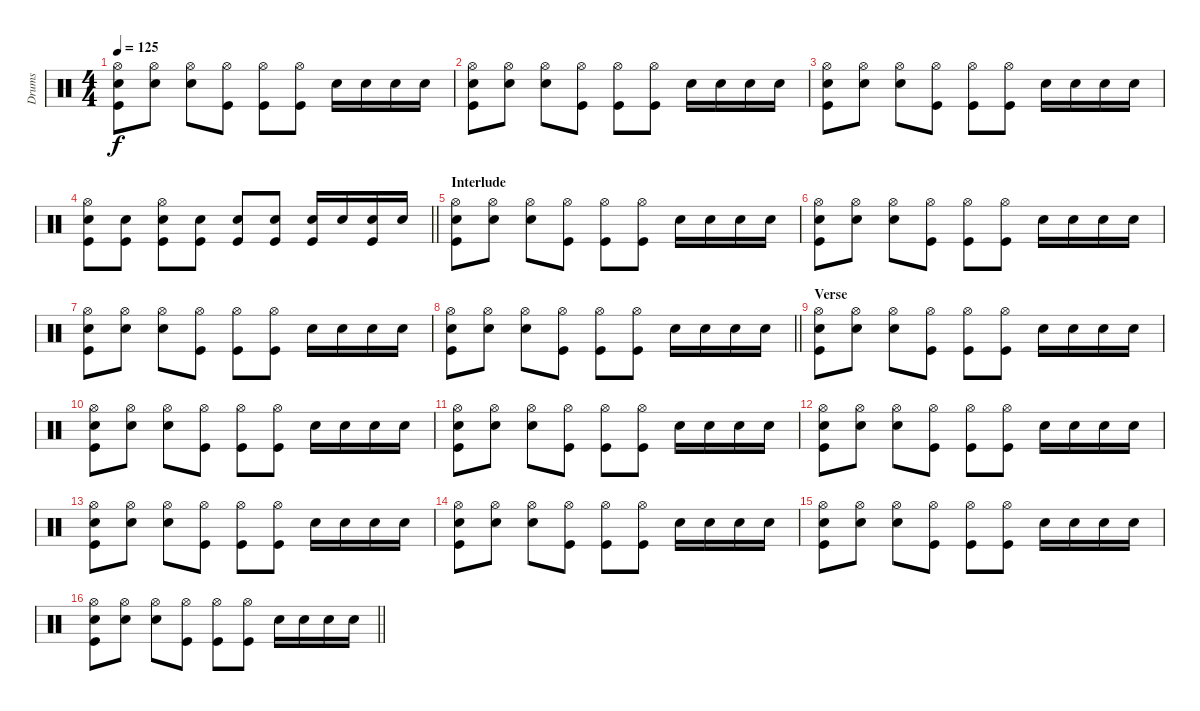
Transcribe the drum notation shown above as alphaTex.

\track ("Drums" "Drums") {instrument percussion}
\staff {score}
\articulation defaults
\ts (4 4)
\tempo 125
\clef neutral
\ks c
("Hi-Hat (open)" "Electric Snare (hit)" "Kick (hit)").8{dy f} ("Hi-Hat (open)" "Electric Snare (hit)").8 ("Hi-Hat (open)" "Electric Snare (hit)").8 ("Hi-Hat (open)" "Kick (hit)").8 ("Hi-Hat (open)" "Kick (hit)").8 ("Hi-Hat (open)" "Kick (hit)").8 "Electric Snare (hit)".16 "Electric Snare (hit)".16 "Electric Snare (hit)".16 "Electric Snare (hit)".16 |
("Hi-Hat (open)" "Electric Snare (hit)" "Kick (hit)").8 ("Hi-Hat (open)" "Electric Snare (hit)").8 ("Hi-Hat (open)" "Electric Snare (hit)").8 ("Hi-Hat (open)" "Kick (hit)").8 ("Hi-Hat (open)" "Kick (hit)").8 ("Hi-Hat (open)" "Kick (hit)").8 "Electric Snare (hit)".16 "Electric Snare (hit)".16 "Electric Snare (hit)".16 "Electric Snare (hit)".16 |
("Hi-Hat (open)" "Electric Snare (hit)" "Kick (hit)").8 ("Hi-Hat (open)" "Electric Snare (hit)").8 ("Hi-Hat (open)" "Electric Snare (hit)").8 ("Hi-Hat (open)" "Kick (hit)").8 ("Hi-Hat (open)" "Kick (hit)").8 ("Hi-Hat (open)" "Kick (hit)").8 "Electric Snare (hit)".16 "Electric Snare (hit)".16 "Electric Snare (hit)".16 "Electric Snare (hit)".16 |
\barLineRight lightlight
("Hi-Hat (open)" "Electric Snare (hit)" "Kick (hit)").8 ("Electric Snare (hit)" "Kick (hit)").8 ("Hi-Hat (open)" "Electric Snare (hit)" "Kick (hit)").8 ("Electric Snare (hit)" "Kick (hit)").8 ("Electric Snare (hit)" "Kick (hit)").8 ("Electric Snare (hit)" "Kick (hit)").8 ("Electric Snare (hit)" "Kick (hit)").16 "Electric Snare (hit)".16 ("Electric Snare (hit)" "Kick (hit)").16 "Electric Snare (hit)".16 |
\section ("" "Interlude")
("Hi-Hat (open)" "Electric Snare (hit)" "Kick (hit)").8 ("Hi-Hat (open)" "Electric Snare (hit)").8 ("Hi-Hat (open)" "Electric Snare (hit)").8 ("Hi-Hat (open)" "Kick (hit)").8 ("Hi-Hat (open)" "Kick (hit)").8 ("Hi-Hat (open)" "Kick (hit)").8 "Electric Snare (hit)".16 "Electric Snare (hit)".16 "Electric Snare (hit)".16 "Electric Snare (hit)".16 |
("Hi-Hat (open)" "Electric Snare (hit)" "Kick (hit)").8 ("Hi-Hat (open)" "Electric Snare (hit)").8 ("Hi-Hat (open)" "Electric Snare (hit)").8 ("Hi-Hat (open)" "Kick (hit)").8 ("Hi-Hat (open)" "Kick (hit)").8 ("Hi-Hat (open)" "Kick (hit)").8 "Electric Snare (hit)".16 "Electric Snare (hit)".16 "Electric Snare (hit)".16 "Electric Snare (hit)".16 |
("Hi-Hat (open)" "Electric Snare (hit)" "Kick (hit)").8 ("Hi-Hat (open)" "Electric Snare (hit)").8 ("Hi-Hat (open)" "Electric Snare (hit)").8 ("Hi-Hat (open)" "Kick (hit)").8 ("Hi-Hat (open)" "Kick (hit)").8 ("Hi-Hat (open)" "Kick (hit)").8 "Electric Snare (hit)".16 "Electric Snare (hit)".16 "Electric Snare (hit)".16 "Electric Snare (hit)".16 |
\barLineRight lightlight
("Hi-Hat (open)" "Electric Snare (hit)" "Kick (hit)").8 ("Hi-Hat (open)" "Electric Snare (hit)").8 ("Hi-Hat (open)" "Electric Snare (hit)").8 ("Hi-Hat (open)" "Kick (hit)").8 ("Hi-Hat (open)" "Kick (hit)").8 ("Hi-Hat (open)" "Kick (hit)").8 "Electric Snare (hit)".16 "Electric Snare (hit)".16 "Electric Snare (hit)".16 "Electric Snare (hit)".16 |
\section ("" "Verse")
("Hi-Hat (open)" "Electric Snare (hit)" "Kick (hit)").8 ("Hi-Hat (open)" "Electric Snare (hit)").8 ("Hi-Hat (open)" "Electric Snare (hit)").8 ("Hi-Hat (open)" "Kick (hit)").8 ("Hi-Hat (open)" "Kick (hit)").8 ("Hi-Hat (open)" "Kick (hit)").8 "Electric Snare (hit)".16 "Electric Snare (hit)".16 "Electric Snare (hit)".16 "Electric Snare (hit)".16 |
("Hi-Hat (open)" "Electric Snare (hit)" "Kick (hit)").8 ("Hi-Hat (open)" "Electric Snare (hit)").8 ("Hi-Hat (open)" "Electric Snare (hit)").8 ("Hi-Hat (open)" "Kick (hit)").8 ("Hi-Hat (open)" "Kick (hit)").8 ("Hi-Hat (open)" "Kick (hit)").8 "Electric Snare (hit)".16 "Electric Snare (hit)".16 "Electric Snare (hit)".16 "Electric Snare (hit)".16 |
("Hi-Hat (open)" "Electric Snare (hit)" "Kick (hit)").8 ("Hi-Hat (open)" "Electric Snare (hit)").8 ("Hi-Hat (open)" "Electric Snare (hit)").8 ("Hi-Hat (open)" "Kick (hit)").8 ("Hi-Hat (open)" "Kick (hit)").8 ("Hi-Hat (open)" "Kick (hit)").8 "Electric Snare (hit)".16 "Electric Snare (hit)".16 "Electric Snare (hit)".16 "Electric Snare (hit)".16 |
("Hi-Hat (open)" "Electric Snare (hit)" "Kick (hit)").8 ("Hi-Hat (open)" "Electric Snare (hit)").8 ("Hi-Hat (open)" "Electric Snare (hit)").8 ("Hi-Hat (open)" "Kick (hit)").8 ("Hi-Hat (open)" "Kick (hit)").8 ("Hi-Hat (open)" "Kick (hit)").8 "Electric Snare (hit)".16 "Electric Snare (hit)".16 "Electric Snare (hit)".16 "Electric Snare (hit)".16 |
("Hi-Hat (open)" "Electric Snare (hit)" "Kick (hit)").8 ("Hi-Hat (open)" "Electric Snare (hit)").8 ("Hi-Hat (open)" "Electric Snare (hit)").8 ("Hi-Hat (open)" "Kick (hit)").8 ("Hi-Hat (open)" "Kick (hit)").8 ("Hi-Hat (open)" "Kick (hit)").8 "Electric Snare (hit)".16 "Electric Snare (hit)".16 "Electric Snare (hit)".16 "Electric Snare (hit)".16 |
("Hi-Hat (open)" "Electric Snare (hit)" "Kick (hit)").8 ("Hi-Hat (open)" "Electric Snare (hit)").8 ("Hi-Hat (open)" "Electric Snare (hit)").8 ("Hi-Hat (open)" "Kick (hit)").8 ("Hi-Hat (open)" "Kick (hit)").8 ("Hi-Hat (open)" "Kick (hit)").8 "Electric Snare (hit)".16 "Electric Snare (hit)".16 "Electric Snare (hit)".16 "Electric Snare (hit)".16 |
("Hi-Hat (open)" "Electric Snare (hit)" "Kick (hit)").8 ("Hi-Hat (open)" "Electric Snare (hit)").8 ("Hi-Hat (open)" "Electric Snare (hit)").8 ("Hi-Hat (open)" "Kick (hit)").8 ("Hi-Hat (open)" "Kick (hit)").8 ("Hi-Hat (open)" "Kick (hit)").8 "Electric Snare (hit)".16 "Electric Snare (hit)".16 "Electric Snare (hit)".16 "Electric Snare (hit)".16 |
\barLineRight lightlight
("Hi-Hat (open)" "Electric Snare (hit)" "Kick (hit)").8 ("Hi-Hat (open)" "Electric Snare (hit)").8 ("Hi-Hat (open)" "Electric Snare (hit)").8 ("Hi-Hat (open)" "Kick (hit)").8 ("Hi-Hat (open)" "Kick (hit)").8 ("Hi-Hat (open)" "Kick (hit)").8 "Electric Snare (hit)".16 "Electric Snare (hit)".16 "Electric Snare (hit)".16 "Electric Snare (hit)".16
